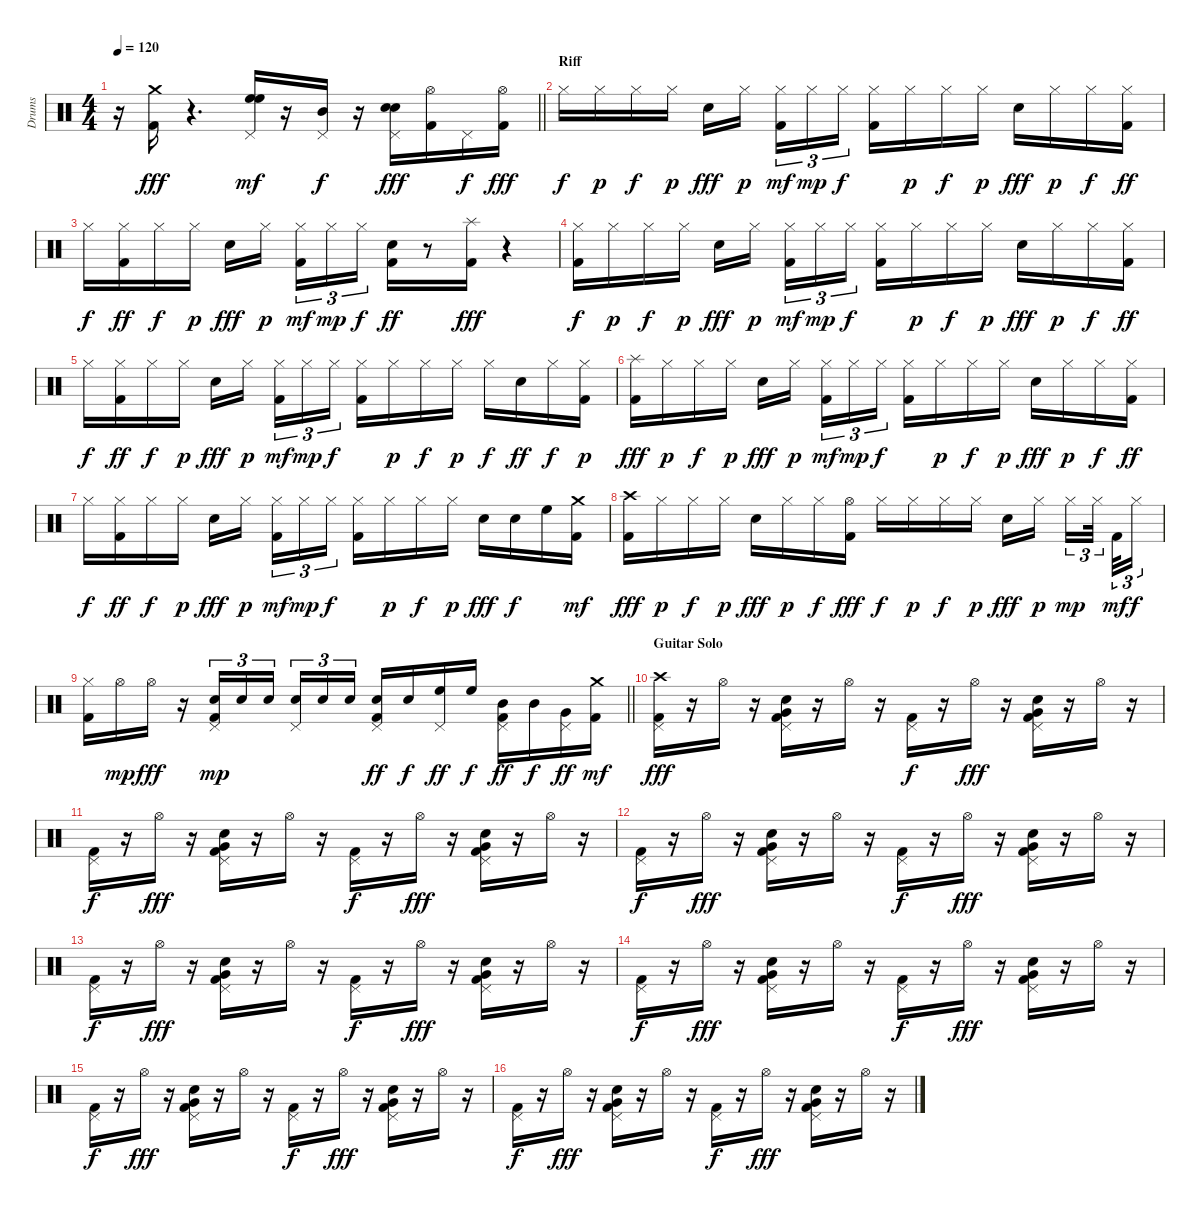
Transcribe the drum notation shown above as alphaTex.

\track ("Drums" "Drums") {instrument percussion}
\staff {score}
\articulation defaults
\ts (4 4)
\tempo 120
\clef neutral
\barLineRight lightlight
\ks c
r.16{dy fff} ("Kick (hit) 2" "Crash medium (hit)").16 r.4{d} ("High Floor Tom (hit)" "High Floor Tom (hit)" "Pedal Hi-Hat (hit)").16{dy mf} r.16 ("Mid Tom (hit)" "Pedal Hi-Hat (hit)").16{dy f} r.16 ("Snare (hit) 2" "Snare (hit) 2" "Pedal Hi-Hat (hit)").16{dy fff} ("Hi-Hat (open)" "Kick (hit) 2").16 "Pedal Hi-Hat (hit)".16{dy f} ("Kick (hit) 2" "Hi-Hat (open)").16{dy fff} |
\section ("" "Riff")
"Hi-Hat (closed)".16{dy f} "Hi-Hat (closed)".16{dy p} "Hi-Hat (closed)".16{dy f} "Hi-Hat (closed)".16{dy p} "Snare (hit) 2".16{dy fff} "Hi-Hat (closed)".16{dy p beam splitsecondary} ("Hi-Hat (closed)" "Kick (hit) 2").16{tu (3 2) dy mf} "Hi-Hat (closed)".16{tu (3 2) dy mp} "Hi-Hat (closed)".16{tu (3 2) dy f} ("Hi-Hat (closed)" "Kick (hit) 2").16 "Hi-Hat (closed)".16{dy p} "Hi-Hat (closed)".16{dy f} "Hi-Hat (closed)".16{dy p} "Snare (hit) 2".16{dy fff} "Hi-Hat (closed)".16{dy p} "Hi-Hat (closed)".16{dy f} ("Hi-Hat (closed)" "Kick (hit) 2").16{dy ff} |
"Hi-Hat (closed)".16{dy f} ("Hi-Hat (closed)" "Kick (hit) 2").16{dy ff} "Hi-Hat (closed)".16{dy f} "Hi-Hat (closed)".16{dy p} "Snare (hit) 2".16{dy fff} "Hi-Hat (closed)".16{dy p beam splitsecondary} ("Hi-Hat (closed)" "Kick (hit) 2").16{tu (3 2) dy mf} "Hi-Hat (closed)".16{tu (3 2) dy mp} "Hi-Hat (closed)".16{tu (3 2) dy f} ("Snare (hit) 2" "Kick (hit) 2").16{dy ff} r.8 ("Kick (hit) 2" "Splash (hit)").16{dy fff} r.4 |
("Hi-Hat (closed)" "Kick (hit) 2").16{dy f} "Hi-Hat (closed)".16{dy p} "Hi-Hat (closed)".16{dy f} "Hi-Hat (closed)".16{dy p} "Snare (hit) 2".16{dy fff} "Hi-Hat (closed)".16{dy p beam splitsecondary} ("Hi-Hat (closed)" "Kick (hit) 2").16{tu (3 2) dy mf} "Hi-Hat (closed)".16{tu (3 2) dy mp} "Hi-Hat (closed)".16{tu (3 2) dy f} ("Hi-Hat (closed)" "Kick (hit) 2").16 "Hi-Hat (closed)".16{dy p} "Hi-Hat (closed)".16{dy f} "Hi-Hat (closed)".16{dy p} "Snare (hit) 2".16{dy fff} "Hi-Hat (closed)".16{dy p} "Hi-Hat (closed)".16{dy f} ("Hi-Hat (closed)" "Kick (hit) 2").16{dy ff} |
"Hi-Hat (closed)".16{dy f} ("Hi-Hat (closed)" "Kick (hit) 2").16{dy ff} "Hi-Hat (closed)".16{dy f} "Hi-Hat (closed)".16{dy p} "Snare (hit) 2".16{dy fff} "Hi-Hat (closed)".16{dy p beam splitsecondary} ("Hi-Hat (closed)" "Kick (hit) 2").16{tu (3 2) dy mf} "Hi-Hat (closed)".16{tu (3 2) dy mp} "Hi-Hat (closed)".16{tu (3 2) dy f} ("Hi-Hat (closed)" "Kick (hit) 2").16 "Hi-Hat (closed)".16{dy p} "Hi-Hat (closed)".16{dy f} "Hi-Hat (closed)".16{dy p} "Hi-Hat (closed)".16{dy f} "Snare (hit) 2".16{dy ff} "Hi-Hat (closed)".16{dy f} ("Kick (hit) 2" "Hi-Hat (closed)").16{dy p} |
("Kick (hit) 2" "Splash (hit)").16{dy fff} "Hi-Hat (closed)".16{dy p} "Hi-Hat (closed)".16{dy f} "Hi-Hat (closed)".16{dy p} "Snare (hit) 2".16{dy fff} "Hi-Hat (closed)".16{dy p beam splitsecondary} ("Hi-Hat (closed)" "Kick (hit) 2").16{tu (3 2) dy mf} "Hi-Hat (closed)".16{tu (3 2) dy mp} "Hi-Hat (closed)".16{tu (3 2) dy f} ("Hi-Hat (closed)" "Kick (hit) 2").16 "Hi-Hat (closed)".16{dy p} "Hi-Hat (closed)".16{dy f} "Hi-Hat (closed)".16{dy p} "Snare (hit) 2".16{dy fff} "Hi-Hat (closed)".16{dy p} "Hi-Hat (closed)".16{dy f} ("Hi-Hat (closed)" "Kick (hit) 2").16{dy ff} |
"Hi-Hat (closed)".16{dy f} ("Hi-Hat (closed)" "Kick (hit) 2").16{dy ff} "Hi-Hat (closed)".16{dy f} "Hi-Hat (closed)".16{dy p} "Snare (hit) 2".16{dy fff} "Hi-Hat (closed)".16{dy p beam splitsecondary} ("Hi-Hat (closed)" "Kick (hit) 2").16{tu (3 2) dy mf} "Hi-Hat (closed)".16{tu (3 2) dy mp} "Hi-Hat (closed)".16{tu (3 2) dy f} ("Hi-Hat (closed)" "Kick (hit) 2").16 "Hi-Hat (closed)".16{dy p} "Hi-Hat (closed)".16{dy f} "Hi-Hat (closed)".16{dy p} "Snare (hit) 2".16{dy fff} "Snare (hit) 2".16{dy f} "High Floor Tom (hit)".16 ("Kick (hit) 2" "Crash medium (hit)").16{dy mf} |
("Kick (hit) 2" "Crash high (hit)").16{dy fff} "Hi-Hat (closed)".16{dy p} "Hi-Hat (closed)".16{dy f} "Hi-Hat (closed)".16{dy p} "Snare (hit) 2".16{dy fff} "Hi-Hat (closed)".16{dy p} "Hi-Hat (closed)".16{dy f} ("Kick (hit) 2" "Hi-Hat (open)").16{dy fff} "Hi-Hat (closed)".16{dy f} "Hi-Hat (closed)".16{dy p} "Hi-Hat (closed)".16{dy f} "Hi-Hat (closed)".16{dy p} "Snare (hit) 2".16{dy fff} "Hi-Hat (closed)".16{dy p beam splitsecondary} "Hi-Hat (closed)".16{tu (3 2) dy mp} "Hi-Hat (closed)".32{tu (3 2) beam splitsecondary} "Kick (hit) 2".32{tu (3 2) dy mf} "Hi-Hat (closed)".16{tu (3 2) dy f} |
\barLineRight lightlight
("Hi-Hat (closed)" "Kick (hit) 2").16 "Hi-Hat (open)".16{dy mp} "Hi-Hat (open)".16{dy fff} r.16 ("Snare (hit) 2" "Kick (hit) 2" "Pedal Hi-Hat (hit)").16{tu (3 2) dy mp} "Snare (hit) 2".16{tu (3 2)} "Snare (hit) 2".16{tu (3 2) beam splitsecondary} ("Snare (hit) 2" "Pedal Hi-Hat (hit)").16{tu (3 2)} "Snare (hit) 2".16{tu (3 2)} "Snare (hit) 2".16{tu (3 2)} ("Snare (hit) 2" "Kick (hit) 2" "Pedal Hi-Hat (hit)").16{dy ff} "Snare (hit) 2".16{dy f} ("High Floor Tom (hit)" "Pedal Hi-Hat (hit)").16{dy ff} "High Floor Tom (hit)".16{dy f} ("Mid Tom (hit)" "Kick (hit) 2" "Pedal Hi-Hat (hit)").16{dy ff} "Mid Tom (hit)".16{dy f} ("Very Low Tom (hit)" "Pedal Hi-Hat (hit)").16{dy ff} ("Kick (hit) 2" "Crash medium (hit)").16{dy mf} |
\section ("" "Guitar Solo")
("Kick (hit) 2" "Pedal Hi-Hat (hit)" "Crash high (hit)").16{dy fff} r.16 "Hi-Hat (open)".16 r.16 ("Kick (hit) 2" "Pedal Hi-Hat (hit)" "Snare (hit) 2" "Very Low Tom (hit)").16 r.16 "Hi-Hat (open)".16 r.16 ("Kick (hit) 2" "Pedal Hi-Hat (hit)").16{dy f} r.16 "Hi-Hat (open)".16{dy fff} r.16 ("Kick (hit) 2" "Pedal Hi-Hat (hit)" "Snare (hit) 2" "Very Low Tom (hit)").16 r.16 "Hi-Hat (open)".16 r.16 |
("Kick (hit) 2" "Pedal Hi-Hat (hit)").16{dy f} r.16 "Hi-Hat (open)".16{dy fff} r.16 ("Kick (hit) 2" "Pedal Hi-Hat (hit)" "Snare (hit) 2" "Very Low Tom (hit)").16 r.16 "Hi-Hat (open)".16 r.16 ("Kick (hit) 2" "Pedal Hi-Hat (hit)").16{dy f} r.16 "Hi-Hat (open)".16{dy fff} r.16 ("Kick (hit) 2" "Pedal Hi-Hat (hit)" "Snare (hit) 2" "Very Low Tom (hit)").16 r.16 "Hi-Hat (open)".16 r.16 |
("Kick (hit) 2" "Pedal Hi-Hat (hit)").16{dy f} r.16 "Hi-Hat (open)".16{dy fff} r.16 ("Kick (hit) 2" "Pedal Hi-Hat (hit)" "Snare (hit) 2" "Very Low Tom (hit)").16 r.16 "Hi-Hat (open)".16 r.16 ("Kick (hit) 2" "Pedal Hi-Hat (hit)").16{dy f} r.16 "Hi-Hat (open)".16{dy fff} r.16 ("Kick (hit) 2" "Pedal Hi-Hat (hit)" "Snare (hit) 2" "Very Low Tom (hit)").16 r.16 "Hi-Hat (open)".16 r.16 |
("Kick (hit) 2" "Pedal Hi-Hat (hit)").16{dy f} r.16 "Hi-Hat (open)".16{dy fff} r.16 ("Kick (hit) 2" "Pedal Hi-Hat (hit)" "Snare (hit) 2" "Very Low Tom (hit)").16 r.16 "Hi-Hat (open)".16 r.16 ("Kick (hit) 2" "Pedal Hi-Hat (hit)").16{dy f} r.16 "Hi-Hat (open)".16{dy fff} r.16 ("Kick (hit) 2" "Pedal Hi-Hat (hit)" "Snare (hit) 2" "Very Low Tom (hit)").16 r.16 "Hi-Hat (open)".16 r.16 |
("Kick (hit) 2" "Pedal Hi-Hat (hit)").16{dy f} r.16 "Hi-Hat (open)".16{dy fff} r.16 ("Kick (hit) 2" "Pedal Hi-Hat (hit)" "Snare (hit) 2" "Very Low Tom (hit)").16 r.16 "Hi-Hat (open)".16 r.16 ("Kick (hit) 2" "Pedal Hi-Hat (hit)").16{dy f} r.16 "Hi-Hat (open)".16{dy fff} r.16 ("Kick (hit) 2" "Pedal Hi-Hat (hit)" "Snare (hit) 2" "Very Low Tom (hit)").16 r.16 "Hi-Hat (open)".16 r.16 |
("Kick (hit) 2" "Pedal Hi-Hat (hit)").16{dy f} r.16 "Hi-Hat (open)".16{dy fff} r.16 ("Kick (hit) 2" "Pedal Hi-Hat (hit)" "Snare (hit) 2" "Very Low Tom (hit)").16 r.16 "Hi-Hat (open)".16 r.16 ("Kick (hit) 2" "Pedal Hi-Hat (hit)").16{dy f} r.16 "Hi-Hat (open)".16{dy fff} r.16 ("Kick (hit) 2" "Pedal Hi-Hat (hit)" "Snare (hit) 2" "Very Low Tom (hit)").16 r.16 "Hi-Hat (open)".16 r.16 |
("Kick (hit) 2" "Pedal Hi-Hat (hit)").16{dy f} r.16 "Hi-Hat (open)".16{dy fff} r.16 ("Kick (hit) 2" "Pedal Hi-Hat (hit)" "Snare (hit) 2" "Very Low Tom (hit)").16 r.16 "Hi-Hat (open)".16 r.16 ("Kick (hit) 2" "Pedal Hi-Hat (hit)").16{dy f} r.16 "Hi-Hat (open)".16{dy fff} r.16 ("Kick (hit) 2" "Pedal Hi-Hat (hit)" "Snare (hit) 2" "Very Low Tom (hit)").16 r.16 "Hi-Hat (open)".16 r.16
